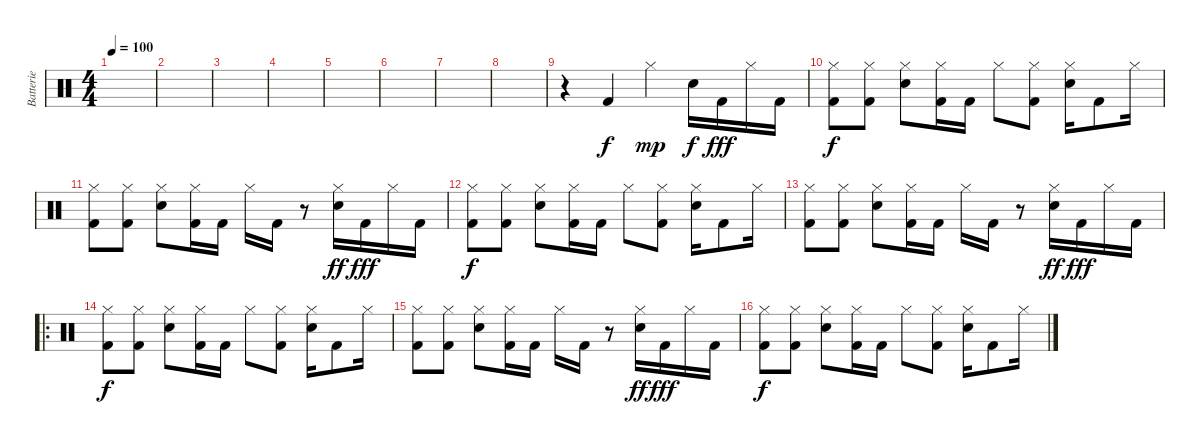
\track ("Batterie" "Batterie") {instrument percussion}
\staff {score}
\articulation defaults
\ts (4 4)
\tempo 100
\clef neutral
\ks c
|
|
|
|
|
|
|
|
r.4 "Kick (hit) 2".4 "Hi-Hat (closed)".4{dy mp} "Snare (hit) 2".16{dy f} "Kick (hit) 2".16{dy fff} "Hi-Hat (closed)".16 "Kick (hit) 2".16 |
("Hi-Hat (closed)" "Kick (hit) 2").8{dy f} ("Hi-Hat (closed)" "Kick (hit) 2").8 ("Hi-Hat (closed)" "Snare (hit) 2").8 ("Hi-Hat (closed)" "Kick (hit) 2").16 "Kick (hit) 2".16 "Hi-Hat (closed)".8 ("Hi-Hat (closed)" "Kick (hit) 2").8 ("Hi-Hat (closed)" "Snare (hit) 2").16 "Kick (hit) 2".8 "Hi-Hat (closed)".16 |
("Hi-Hat (closed)" "Kick (hit) 2").8 ("Hi-Hat (closed)" "Kick (hit) 2").8 ("Hi-Hat (closed)" "Snare (hit) 2").8 ("Hi-Hat (closed)" "Kick (hit) 2").16 "Kick (hit) 2".16 "Hi-Hat (closed)".16 "Kick (hit) 2".16 r.8 ("Hi-Hat (closed)" "Snare (hit) 2").16{dy ff} "Kick (hit) 2".16{dy fff} "Hi-Hat (closed)".16 "Kick (hit) 2".16 |
("Hi-Hat (closed)" "Kick (hit) 2").8{dy f} ("Hi-Hat (closed)" "Kick (hit) 2").8 ("Hi-Hat (closed)" "Snare (hit) 2").8 ("Hi-Hat (closed)" "Kick (hit) 2").16 "Kick (hit) 2".16 "Hi-Hat (closed)".8 ("Hi-Hat (closed)" "Kick (hit) 2").8 ("Hi-Hat (closed)" "Snare (hit) 2").16 "Kick (hit) 2".8 "Hi-Hat (closed)".16 |
("Hi-Hat (closed)" "Kick (hit) 2").8 ("Hi-Hat (closed)" "Kick (hit) 2").8 ("Hi-Hat (closed)" "Snare (hit) 2").8 ("Hi-Hat (closed)" "Kick (hit) 2").16 "Kick (hit) 2".16 "Hi-Hat (closed)".16 "Kick (hit) 2".16 r.8 ("Hi-Hat (closed)" "Snare (hit) 2").16{dy ff} "Kick (hit) 2".16{dy fff} "Hi-Hat (closed)".16 "Kick (hit) 2".16 |
\ro
("Hi-Hat (closed)" "Kick (hit) 2").8{dy f} ("Hi-Hat (closed)" "Kick (hit) 2").8 ("Hi-Hat (closed)" "Snare (hit) 2").8 ("Hi-Hat (closed)" "Kick (hit) 2").16 "Kick (hit) 2".16 "Hi-Hat (closed)".8 ("Hi-Hat (closed)" "Kick (hit) 2").8 ("Hi-Hat (closed)" "Snare (hit) 2").16 "Kick (hit) 2".8 "Hi-Hat (closed)".16 |
("Hi-Hat (closed)" "Kick (hit) 2").8 ("Hi-Hat (closed)" "Kick (hit) 2").8 ("Hi-Hat (closed)" "Snare (hit) 2").8 ("Hi-Hat (closed)" "Kick (hit) 2").16 "Kick (hit) 2".16 "Hi-Hat (closed)".16 "Kick (hit) 2".16 r.8 ("Hi-Hat (closed)" "Snare (hit) 2").16{dy ff} "Kick (hit) 2".16{dy fff} "Hi-Hat (closed)".16 "Kick (hit) 2".16 |
("Hi-Hat (closed)" "Kick (hit) 2").8{dy f} ("Hi-Hat (closed)" "Kick (hit) 2").8 ("Hi-Hat (closed)" "Snare (hit) 2").8 ("Hi-Hat (closed)" "Kick (hit) 2").16 "Kick (hit) 2".16 "Hi-Hat (closed)".8 ("Hi-Hat (closed)" "Kick (hit) 2").8 ("Hi-Hat (closed)" "Snare (hit) 2").16 "Kick (hit) 2".8 "Hi-Hat (closed)".16
